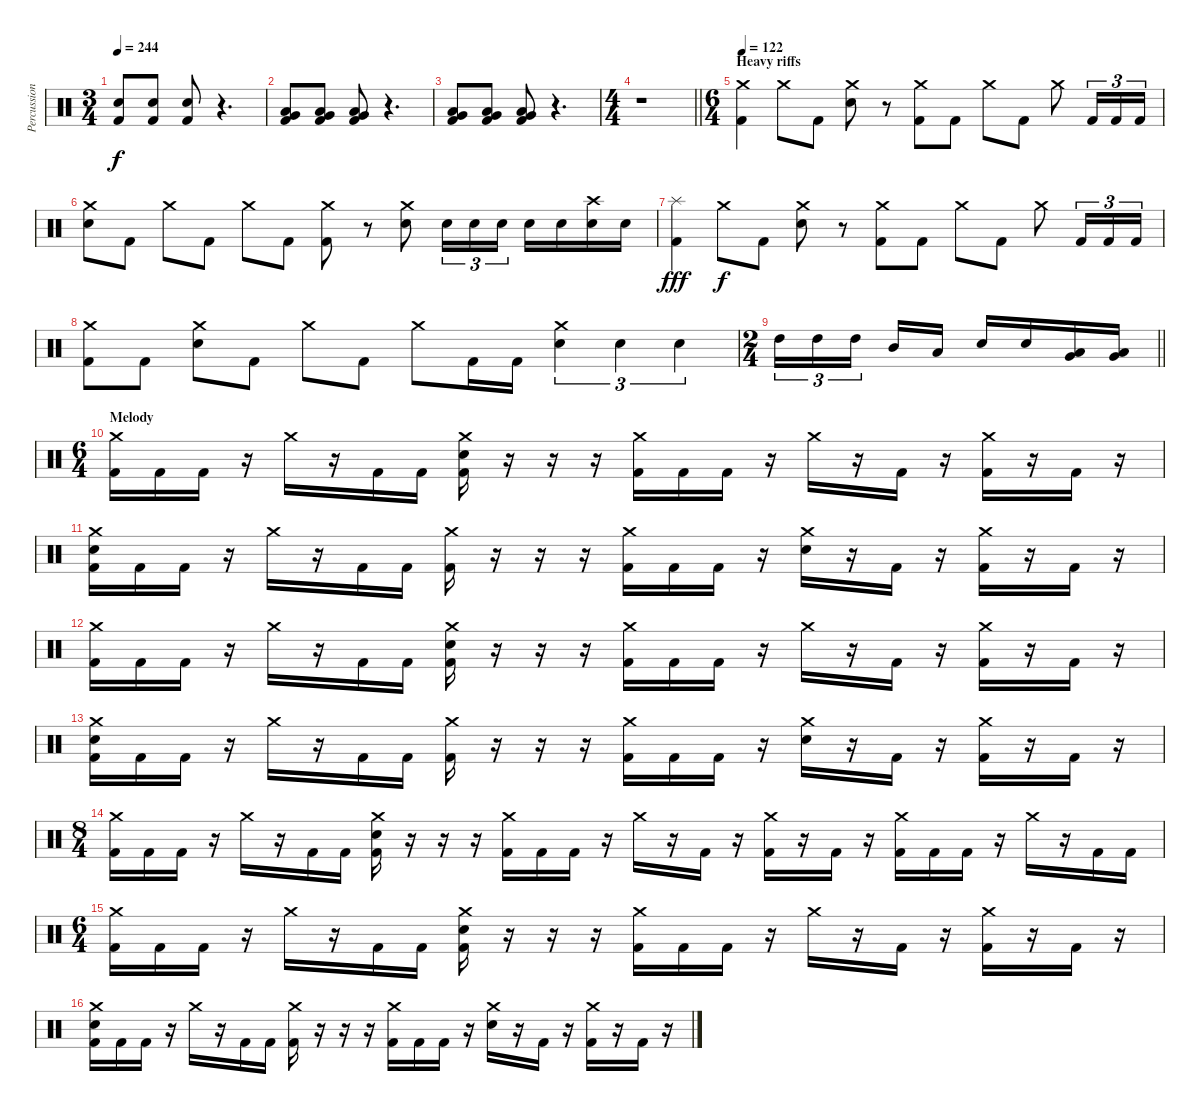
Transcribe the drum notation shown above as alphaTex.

\track ("Percussion" "Percussion") {instrument percussion}
\staff {score}
\articulation defaults
\ts (3 4)
\tempo 244
\clef neutral
\ks c
("Electric Snare (hit)" "Kick (hit) 2").8{dy f} ("Electric Snare (hit)" "Kick (hit) 2").8 ("Electric Snare (hit)" "Kick (hit) 2").8 r.4{d} |
("Low Tom (hit)" "Very Low Tom (hit)" "Kick (hit) 2").8 ("Low Tom (hit)" "Very Low Tom (hit)" "Kick (hit) 2").8 ("Low Tom (hit)" "Very Low Tom (hit)" "Kick (hit) 2").8 r.4{d} |
("Low Tom (hit)" "Very Low Tom (hit)" "Kick (hit) 2").8 ("Low Tom (hit)" "Very Low Tom (hit)" "Kick (hit) 2").8 ("Low Tom (hit)" "Very Low Tom (hit)" "Kick (hit) 2").8 r.4{d} |
\ts (4 4)
\barLineRight lightlight
r.1 |
\ts (6 4)
\section ("" "Heavy riffs")
\tempo 122
("Crash medium (hit)" "Kick (hit) 2").4 "Crash medium (hit)".8 "Kick (hit) 2".8 ("Crash medium (hit)" "Electric Snare (hit)").8 r.8 ("Crash medium (hit)" "Kick (hit) 2").8 "Kick (hit) 2".8 "Crash medium (hit)".8 "Kick (hit) 2".8 "Crash medium (hit)".8 "Kick (hit) 2".16{tu (3 2)} "Kick (hit) 2".16{tu (3 2)} "Kick (hit) 2".16{tu (3 2)} |
("Crash medium (hit)" "Electric Snare (hit)").8 "Kick (hit) 2".8 "Crash medium (hit)".8 "Kick (hit) 2".8 "Crash medium (hit)".8 "Kick (hit) 2".8 ("Crash medium (hit)" "Kick (hit) 2").8 r.8 ("Crash medium (hit)" "Electric Snare (hit)").8 "Electric Snare (hit)".16{tu (3 2)} "Electric Snare (hit)".16{tu (3 2)} "Electric Snare (hit)".16{tu (3 2) beam splitsecondary} "Electric Snare (hit)".16 "Electric Snare (hit)".16 ("Crash high (hit)" "Electric Snare (hit)").16 "Electric Snare (hit)".16 |
("Splash (hit)" "Kick (hit) 2").4{dy fff} "Crash medium (hit)".8{dy f} "Kick (hit) 2".8 ("Crash medium (hit)" "Electric Snare (hit)").8 r.8 ("Crash medium (hit)" "Kick (hit) 2").8 "Kick (hit) 2".8 "Crash medium (hit)".8 "Kick (hit) 2".8 "Crash medium (hit)".8 "Kick (hit) 2".16{tu (3 2)} "Kick (hit) 2".16{tu (3 2)} "Kick (hit) 2".16{tu (3 2)} |
("Crash medium (hit)" "Kick (hit) 2").8 "Kick (hit) 2".8 ("Crash medium (hit)" "Electric Snare (hit)").8 "Kick (hit) 2".8 "Crash medium (hit)".8 "Kick (hit) 2".8 "Crash medium (hit)".8 "Kick (hit) 2".16 "Kick (hit) 2".16 ("Crash medium (hit)" "Electric Snare (hit)").4{tu (3 2)} "Electric Snare (hit)".4{tu (3 2)} "Electric Snare (hit)".4{tu (3 2)} |
\ts (2 4)
\barLineRight lightlight "High Tom (hit)".16{tu (3 2) balance 16} "High Tom (hit)".16{tu (3 2) balance 0} "High Tom (hit)".16{tu (3 2) beam splitsecondary} "Mid Tom (hit)".16 "Low Tom (hit)".16 "Electric Snare (hit)".16 "Electric Snare (hit)".16
("Low Tom (hit)" "Very Low Tom (hit)").16 ("Low Tom (hit)" "Very Low Tom (hit)").16 |
\ts (6 4)
\section ("" "Melody")
("Crash medium (hit)" "Kick (hit) 2").16{balance 8} "Kick (hit) 2".16 "Kick (hit) 2".16 r.16 "Crash medium (hit)".16 r.16 "Kick (hit) 2".16 "Kick (hit) 2".16 ("Crash medium (hit)" "Electric Snare (hit)" "Kick (hit) 2").16 r.16 r.16 r.16 ("Crash medium (hit)" "Kick (hit) 2").16 "Kick (hit) 2".16 "Kick (hit) 2".16 r.16 "Crash medium (hit)".16 r.16 "Kick (hit) 2".16 r.16 ("Crash medium (hit)" "Kick (hit) 2").16 r.16 "Kick (hit) 2".16 r.16 |
("Crash medium (hit)" "Electric Snare (hit)" "Kick (hit) 2").16 "Kick (hit) 2".16 "Kick (hit) 2".16 r.16 "Crash medium (hit)".16 r.16 "Kick (hit) 2".16 "Kick (hit) 2".16 ("Crash medium (hit)" "Kick (hit) 2").16 r.16 r.16 r.16 ("Crash medium (hit)" "Kick (hit) 2").16 "Kick (hit) 2".16 "Kick (hit) 2".16 r.16 ("Crash medium (hit)" "Electric Snare (hit)").16 r.16 "Kick (hit) 2".16 r.16 ("Crash medium (hit)" "Kick (hit) 2").16 r.16 "Kick (hit) 2".16 r.16 |
("Crash medium (hit)" "Kick (hit) 2").16 "Kick (hit) 2".16 "Kick (hit) 2".16 r.16 "Crash medium (hit)".16 r.16 "Kick (hit) 2".16 "Kick (hit) 2".16 ("Crash medium (hit)" "Electric Snare (hit)" "Kick (hit) 2").16 r.16 r.16 r.16 ("Crash medium (hit)" "Kick (hit) 2").16 "Kick (hit) 2".16 "Kick (hit) 2".16 r.16 "Crash medium (hit)".16 r.16 "Kick (hit) 2".16 r.16 ("Crash medium (hit)" "Kick (hit) 2").16 r.16 "Kick (hit) 2".16 r.16 |
("Crash medium (hit)" "Electric Snare (hit)" "Kick (hit) 2").16 "Kick (hit) 2".16 "Kick (hit) 2".16 r.16 "Crash medium (hit)".16 r.16 "Kick (hit) 2".16 "Kick (hit) 2".16 ("Crash medium (hit)" "Kick (hit) 2").16 r.16 r.16 r.16 ("Crash medium (hit)" "Kick (hit) 2").16 "Kick (hit) 2".16 "Kick (hit) 2".16 r.16 ("Crash medium (hit)" "Electric Snare (hit)").16 r.16 "Kick (hit) 2".16 r.16 ("Crash medium (hit)" "Kick (hit) 2").16 r.16 "Kick (hit) 2".16 r.16 |
\ts (8 4)
("Crash medium (hit)" "Kick (hit) 2").16 "Kick (hit) 2".16 "Kick (hit) 2".16 r.16 "Crash medium (hit)".16 r.16 "Kick (hit) 2".16 "Kick (hit) 2".16 ("Crash medium (hit)" "Electric Snare (hit)" "Kick (hit) 2").16 r.16 r.16 r.16 ("Crash medium (hit)" "Kick (hit) 2").16 "Kick (hit) 2".16 "Kick (hit) 2".16 r.16 "Crash medium (hit)".16 r.16 "Kick (hit) 2".16 r.16 ("Crash medium (hit)" "Kick (hit) 2").16 r.16 "Kick (hit) 2".16 r.16 ("Crash medium (hit)" "Kick (hit) 2").16 "Kick (hit) 2".16 "Kick (hit) 2".16 r.16 "Crash medium (hit)".16 r.16 "Kick (hit) 2".16 "Kick (hit) 2".16 |
\ts (6 4)
("Crash medium (hit)" "Kick (hit) 2").16 "Kick (hit) 2".16 "Kick (hit) 2".16 r.16 "Crash medium (hit)".16 r.16 "Kick (hit) 2".16 "Kick (hit) 2".16 ("Crash medium (hit)" "Electric Snare (hit)" "Kick (hit) 2").16 r.16 r.16 r.16 ("Crash medium (hit)" "Kick (hit) 2").16 "Kick (hit) 2".16 "Kick (hit) 2".16 r.16 "Crash medium (hit)".16 r.16 "Kick (hit) 2".16 r.16 ("Crash medium (hit)" "Kick (hit) 2").16 r.16 "Kick (hit) 2".16 r.16 |
("Crash medium (hit)" "Electric Snare (hit)" "Kick (hit) 2").16 "Kick (hit) 2".16 "Kick (hit) 2".16 r.16 "Crash medium (hit)".16 r.16 "Kick (hit) 2".16 "Kick (hit) 2".16 ("Crash medium (hit)" "Kick (hit) 2").16 r.16 r.16 r.16 ("Crash medium (hit)" "Kick (hit) 2").16 "Kick (hit) 2".16 "Kick (hit) 2".16 r.16 ("Crash medium (hit)" "Electric Snare (hit)").16 r.16 "Kick (hit) 2".16 r.16 ("Crash medium (hit)" "Kick (hit) 2").16 r.16 "Kick (hit) 2".16 r.16
